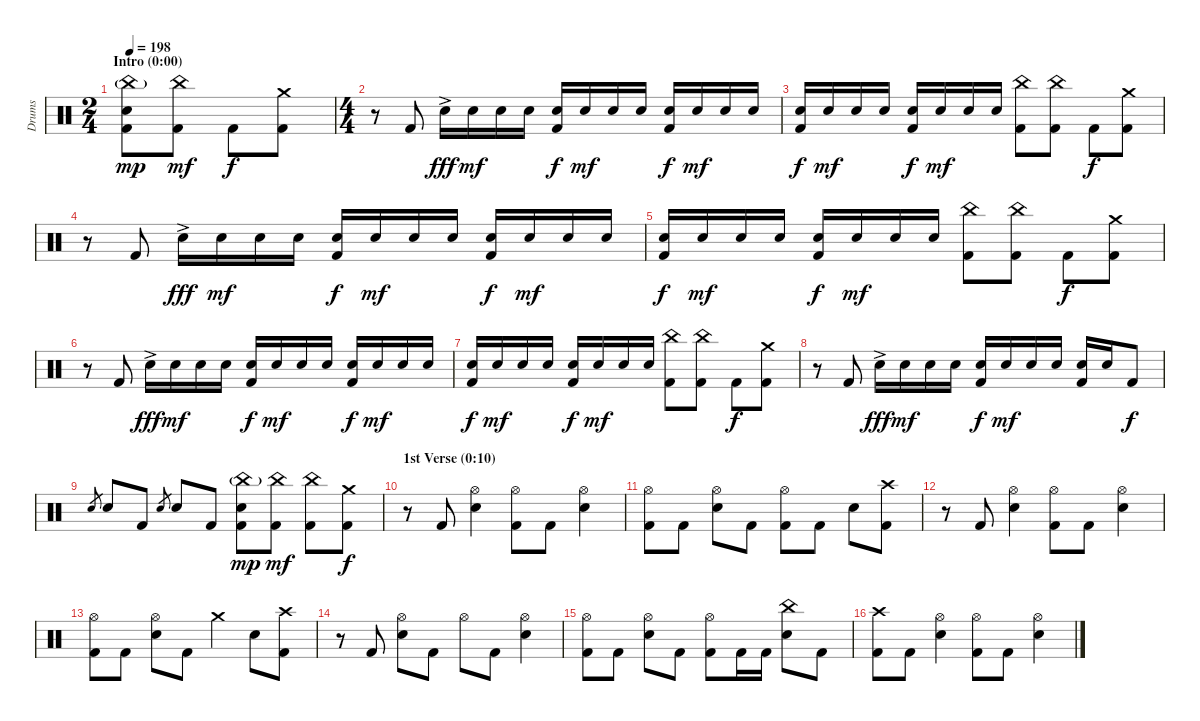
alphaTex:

\track ("Drums" "Drums") {instrument percussion}
\staff {score}
\articulation defaults
\ts (2 4)
\section ("" "Intro (0:00)")
\tempo 198
\clef neutral
\ks c
("China (hit)"{g} "Snare (hit) 2" "Kick (hit) 2").8{dy mp} ("China (hit)" "Kick (hit) 2").8{dy mf} "Kick (hit) 2".8{dy f} ("Crash medium (hit)" "Kick (hit) 2").8 |
\ts (4 4)
r.8 "Kick (hit) 2".8 "Snare (hit) 2"{ac}.16{dy fff} "Snare (hit) 2".16{dy mf} "Snare (hit) 2".16 "Snare (hit) 2".16 ("Snare (hit) 2" "Kick (hit) 2").16{dy f} "Snare (hit) 2".16{dy mf} "Snare (hit) 2".16 "Snare (hit) 2".16 ("Snare (hit) 2" "Kick (hit) 2").16{dy f} "Snare (hit) 2".16{dy mf} "Snare (hit) 2".16 "Snare (hit) 2".16 |
("Snare (hit) 2" "Kick (hit) 2").16{dy f} "Snare (hit) 2".16{dy mf} "Snare (hit) 2".16 "Snare (hit) 2".16 ("Snare (hit) 2" "Kick (hit) 2").16{dy f} "Snare (hit) 2".16{dy mf} "Snare (hit) 2".16 "Snare (hit) 2".16 ("China (hit)" "Kick (hit) 2").8 ("China (hit)" "Kick (hit) 2").8 "Kick (hit) 2".8{dy f} ("Crash medium (hit)" "Kick (hit) 2").8 |
r.8 "Kick (hit) 2".8 "Snare (hit) 2"{ac}.16{dy fff} "Snare (hit) 2".16{dy mf} "Snare (hit) 2".16 "Snare (hit) 2".16 ("Snare (hit) 2" "Kick (hit) 2").16{dy f} "Snare (hit) 2".16{dy mf} "Snare (hit) 2".16 "Snare (hit) 2".16 ("Snare (hit) 2" "Kick (hit) 2").16{dy f} "Snare (hit) 2".16{dy mf} "Snare (hit) 2".16 "Snare (hit) 2".16 |
("Snare (hit) 2" "Kick (hit) 2").16{dy f} "Snare (hit) 2".16{dy mf} "Snare (hit) 2".16 "Snare (hit) 2".16 ("Snare (hit) 2" "Kick (hit) 2").16{dy f} "Snare (hit) 2".16{dy mf} "Snare (hit) 2".16 "Snare (hit) 2".16 ("China (hit)" "Kick (hit) 2").8 ("China (hit)" "Kick (hit) 2").8 "Kick (hit) 2".8{dy f} ("Crash medium (hit)" "Kick (hit) 2").8 |
r.8 "Kick (hit) 2".8 "Snare (hit) 2"{ac}.16{dy fff} "Snare (hit) 2".16{dy mf} "Snare (hit) 2".16 "Snare (hit) 2".16 ("Snare (hit) 2" "Kick (hit) 2").16{dy f} "Snare (hit) 2".16{dy mf} "Snare (hit) 2".16 "Snare (hit) 2".16 ("Snare (hit) 2" "Kick (hit) 2").16{dy f} "Snare (hit) 2".16{dy mf} "Snare (hit) 2".16 "Snare (hit) 2".16 |
("Snare (hit) 2" "Kick (hit) 2").16{dy f} "Snare (hit) 2".16{dy mf} "Snare (hit) 2".16 "Snare (hit) 2".16 ("Snare (hit) 2" "Kick (hit) 2").16{dy f} "Snare (hit) 2".16{dy mf} "Snare (hit) 2".16 "Snare (hit) 2".16 ("China (hit)" "Kick (hit) 2").8 ("China (hit)" "Kick (hit) 2").8 "Kick (hit) 2".8{dy f} ("Crash medium (hit)" "Kick (hit) 2").8 |
r.8 "Kick (hit) 2".8 "Snare (hit) 2"{ac}.16{dy fff} "Snare (hit) 2".16{dy mf} "Snare (hit) 2".16 "Snare (hit) 2".16 ("Snare (hit) 2" "Kick (hit) 2").16{dy f} "Snare (hit) 2".16{dy mf} "Snare (hit) 2".16 "Snare (hit) 2".16 ("Snare (hit) 2" "Kick (hit) 2").16 "Snare (hit) 2".16 "Kick (hit) 2".8{dy f} |
"Snare (hit) 2".8{gr} "Snare (hit) 2".8 "Kick (hit) 2".8 "Snare (hit) 2".8{gr} "Snare (hit) 2".8 "Kick (hit) 2".8 ("China (hit)"{g} "Snare (hit) 2" "Kick (hit) 2").8{dy mp} ("China (hit)" "Kick (hit) 2").8{dy mf} ("China (hit)" "Kick (hit) 2").8 ("Crash medium (hit)" "Kick (hit) 2").8{dy f} |
\section ("" "1st Verse (0:10)")
r.8 "Kick (hit) 2".8 ("Hi-Hat (open)" "Snare (hit) 2").4 ("Hi-Hat (open)" "Kick (hit) 2").8 "Kick (hit) 2".8 ("Hi-Hat (open)" "Snare (hit) 2").4 |
("Hi-Hat (open)" "Kick (hit) 2").8 "Kick (hit) 2".8 ("Hi-Hat (open)" "Snare (hit) 2").8 "Kick (hit) 2".8 ("Hi-Hat (open)" "Kick (hit) 2").8 "Kick (hit) 2".8 "Snare (hit) 2".8 ("Crash high (hit)" "Kick (hit) 2").8 |
r.8 "Kick (hit) 2".8 ("Hi-Hat (open)" "Snare (hit) 2").4 ("Hi-Hat (open)" "Kick (hit) 2").8 "Kick (hit) 2".8 ("Hi-Hat (open)" "Snare (hit) 2").4 |
("Hi-Hat (open)" "Kick (hit) 2").8 "Kick (hit) 2".8 ("Hi-Hat (open)" "Snare (hit) 2").8 "Kick (hit) 2".8 "Crash medium (hit)".4 "Snare (hit) 2".8 ("Crash high (hit)" "Kick (hit) 2").8 |
r.8 "Kick (hit) 2".8 ("Hi-Hat (open)" "Snare (hit) 2").8 "Kick (hit) 2".8 "Hi-Hat (open)".8 "Kick (hit) 2".8 ("Hi-Hat (open)" "Snare (hit) 2").4 |
("Hi-Hat (open)" "Kick (hit) 2").8 "Kick (hit) 2".8 ("Hi-Hat (open)" "Snare (hit) 2").8 "Kick (hit) 2".8 ("Hi-Hat (open)" "Kick (hit) 2").8 "Kick (hit) 2".16 "Kick (hit) 2".16 ("China (hit)" "Snare (hit) 2").8 "Kick (hit) 2".8 |
("Crash high (hit)" "Kick (hit) 2").8 "Kick (hit) 2".8 ("Hi-Hat (open)" "Snare (hit) 2").4 ("Hi-Hat (open)" "Kick (hit) 2").8 "Kick (hit) 2".8 ("Hi-Hat (open)" "Snare (hit) 2").4
